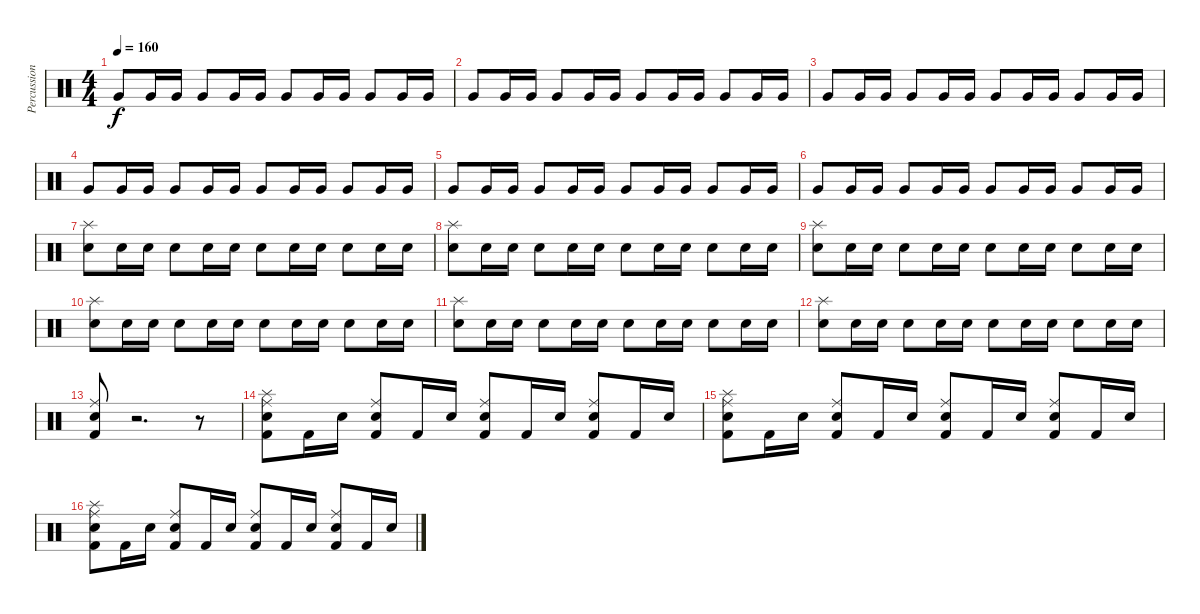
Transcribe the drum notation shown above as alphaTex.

\track ("Percussions" "Percussion") {instrument percussion}
\staff {score}
\articulation defaults
\ts (4 4)
\tempo 160
\clef neutral
\ks c "Very Low Tom (hit)".8{dy f} "Very Low Tom (hit)".16 "Very Low Tom (hit)".16 "Very Low Tom (hit)".8 "Very Low Tom (hit)".16 "Very Low Tom (hit)".16 "Very Low Tom (hit)".8 "Very Low Tom (hit)".16 "Very Low Tom (hit)".16 "Very Low Tom (hit)".8 "Very Low Tom (hit)".16 "Very Low Tom (hit)".16
|
"Very Low Tom (hit)".8 "Very Low Tom (hit)".16 "Very Low Tom (hit)".16 "Very Low Tom (hit)".8 "Very Low Tom (hit)".16 "Very Low Tom (hit)".16 "Very Low Tom (hit)".8 "Very Low Tom (hit)".16 "Very Low Tom (hit)".16 "Very Low Tom (hit)".8 "Very Low Tom (hit)".16 "Very Low Tom (hit)".16 |
"Very Low Tom (hit)".8 "Very Low Tom (hit)".16 "Very Low Tom (hit)".16 "Very Low Tom (hit)".8 "Very Low Tom (hit)".16 "Very Low Tom (hit)".16 "Very Low Tom (hit)".8 "Very Low Tom (hit)".16 "Very Low Tom (hit)".16 "Very Low Tom (hit)".8 "Very Low Tom (hit)".16 "Very Low Tom (hit)".16 |
"Very Low Tom (hit)".8 "Very Low Tom (hit)".16 "Very Low Tom (hit)".16 "Very Low Tom (hit)".8 "Very Low Tom (hit)".16 "Very Low Tom (hit)".16 "Very Low Tom (hit)".8 "Very Low Tom (hit)".16 "Very Low Tom (hit)".16 "Very Low Tom (hit)".8 "Very Low Tom (hit)".16 "Very Low Tom (hit)".16 |
"Very Low Tom (hit)".8 "Very Low Tom (hit)".16 "Very Low Tom (hit)".16 "Very Low Tom (hit)".8 "Very Low Tom (hit)".16 "Very Low Tom (hit)".16 "Very Low Tom (hit)".8 "Very Low Tom (hit)".16 "Very Low Tom (hit)".16 "Very Low Tom (hit)".8 "Very Low Tom (hit)".16 "Very Low Tom (hit)".16 |
"Very Low Tom (hit)".8 "Very Low Tom (hit)".16 "Very Low Tom (hit)".16 "Very Low Tom (hit)".8 "Very Low Tom (hit)".16 "Very Low Tom (hit)".16 "Very Low Tom (hit)".8 "Very Low Tom (hit)".16 "Very Low Tom (hit)".16 "Very Low Tom (hit)".8 "Very Low Tom (hit)".16 "Very Low Tom (hit)".16 |
("Splash (hit)" "Electric Snare (hit)").8 "Electric Snare (hit)".16 "Electric Snare (hit)".16 "Electric Snare (hit)".8 "Electric Snare (hit)".16 "Electric Snare (hit)".16 "Electric Snare (hit)".8 "Electric Snare (hit)".16 "Electric Snare (hit)".16 "Electric Snare (hit)".8 "Electric Snare (hit)".16 "Electric Snare (hit)".16 |
("Splash (hit)" "Electric Snare (hit)").8 "Electric Snare (hit)".16 "Electric Snare (hit)".16 "Electric Snare (hit)".8 "Electric Snare (hit)".16 "Electric Snare (hit)".16 "Electric Snare (hit)".8 "Electric Snare (hit)".16 "Electric Snare (hit)".16 "Electric Snare (hit)".8 "Electric Snare (hit)".16 "Electric Snare (hit)".16 |
("Splash (hit)" "Electric Snare (hit)").8 "Electric Snare (hit)".16 "Electric Snare (hit)".16 "Electric Snare (hit)".8 "Electric Snare (hit)".16 "Electric Snare (hit)".16 "Electric Snare (hit)".8 "Electric Snare (hit)".16 "Electric Snare (hit)".16 "Electric Snare (hit)".8 "Electric Snare (hit)".16 "Electric Snare (hit)".16 |
("Splash (hit)" "Electric Snare (hit)").8 "Electric Snare (hit)".16 "Electric Snare (hit)".16 "Electric Snare (hit)".8 "Electric Snare (hit)".16 "Electric Snare (hit)".16 "Electric Snare (hit)".8 "Electric Snare (hit)".16 "Electric Snare (hit)".16 "Electric Snare (hit)".8 "Electric Snare (hit)".16 "Electric Snare (hit)".16 |
("Splash (hit)" "Electric Snare (hit)").8 "Electric Snare (hit)".16 "Electric Snare (hit)".16 "Electric Snare (hit)".8 "Electric Snare (hit)".16 "Electric Snare (hit)".16 "Electric Snare (hit)".8 "Electric Snare (hit)".16 "Electric Snare (hit)".16 "Electric Snare (hit)".8 "Electric Snare (hit)".16 "Electric Snare (hit)".16 |
("Splash (hit)" "Electric Snare (hit)").8 "Electric Snare (hit)".16 "Electric Snare (hit)".16 "Electric Snare (hit)".8 "Electric Snare (hit)".16 "Electric Snare (hit)".16 "Electric Snare (hit)".8 "Electric Snare (hit)".16 "Electric Snare (hit)".16 "Electric Snare (hit)".8 "Electric Snare (hit)".16 "Electric Snare (hit)".16 |
("Ride (middle)" "Kick (hit) 2" "Electric Snare (hit)").8 r.2{d} r.8 |
("Ride (middle)" "Splash (hit)" "Electric Snare (hit)" "Kick (hit) 2").8 "Kick (hit) 2".16 "Electric Snare (hit)".16 ("Kick (hit) 2" "Ride (middle)" "Electric Snare (hit)").8 "Kick (hit) 2".16 "Electric Snare (hit)".16 ("Kick (hit) 2" "Ride (middle)" "Electric Snare (hit)").8 "Kick (hit) 2".16 "Electric Snare (hit)".16 ("Electric Snare (hit)" "Ride (middle)" "Kick (hit) 2").8 "Kick (hit) 2".16 "Electric Snare (hit)".16 |
("Ride (middle)" "Splash (hit)" "Electric Snare (hit)" "Kick (hit) 2").8 "Kick (hit) 2".16 "Electric Snare (hit)".16 ("Kick (hit) 2" "Ride (middle)" "Electric Snare (hit)").8 "Kick (hit) 2".16 "Electric Snare (hit)".16 ("Kick (hit) 2" "Ride (middle)" "Electric Snare (hit)").8 "Kick (hit) 2".16 "Electric Snare (hit)".16 ("Electric Snare (hit)" "Ride (middle)" "Kick (hit) 2").8 "Kick (hit) 2".16 "Electric Snare (hit)".16 |
("Ride (middle)" "Splash (hit)" "Electric Snare (hit)" "Kick (hit) 2").8 "Kick (hit) 2".16 "Electric Snare (hit)".16 ("Kick (hit) 2" "Ride (middle)" "Electric Snare (hit)").8 "Kick (hit) 2".16 "Electric Snare (hit)".16 ("Kick (hit) 2" "Ride (middle)" "Electric Snare (hit)").8 "Kick (hit) 2".16 "Electric Snare (hit)".16 ("Electric Snare (hit)" "Ride (middle)" "Kick (hit) 2").8 "Kick (hit) 2".16 "Electric Snare (hit)".16
